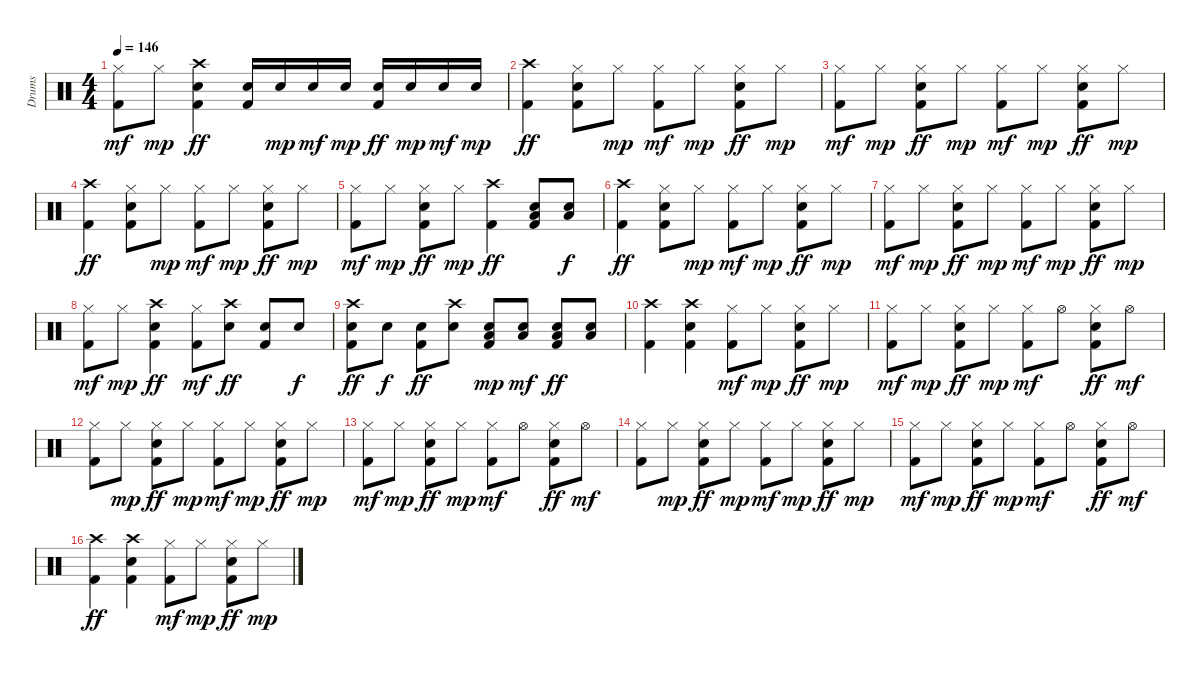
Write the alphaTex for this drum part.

\track ("Drums" "Drums") {instrument percussion}
\staff {score}
\articulation defaults
\ts (4 4)
\tempo 146
\clef neutral
\ks c
("Kick (hit) 2" "Hi-Hat (closed)").8{dy mf} "Hi-Hat (closed)".8{dy mp} ("Kick (hit) 2" "Snare (hit) 2" "Crash high (hit)").4{dy ff} ("Kick (hit) 2" "Snare (hit) 2").16 "Snare (hit) 2".16{dy mp} "Snare (hit) 2".16{dy mf} "Snare (hit) 2".16{dy mp} ("Kick (hit) 2" "Snare (hit) 2").16{dy ff} "Snare (hit) 2".16{dy mp} "Snare (hit) 2".16{dy mf} "Snare (hit) 2".16{dy mp} |
("Kick (hit) 2" "Crash high (hit)").4{dy ff} ("Kick (hit) 2" "Hi-Hat (closed)" "Snare (hit) 2").8 "Hi-Hat (closed)".8{dy mp} ("Kick (hit) 2" "Hi-Hat (closed)").8{dy mf} "Hi-Hat (closed)".8{dy mp} ("Kick (hit) 2" "Hi-Hat (closed)" "Snare (hit) 2").8{dy ff} "Hi-Hat (closed)".8{dy mp} |
("Kick (hit) 2" "Hi-Hat (closed)").8{dy mf} "Hi-Hat (closed)".8{dy mp} ("Kick (hit) 2" "Snare (hit) 2" "Hi-Hat (closed)").8{dy ff} "Hi-Hat (closed)".8{dy mp} ("Kick (hit) 2" "Hi-Hat (closed)").8{dy mf} "Hi-Hat (closed)".8{dy mp} ("Kick (hit) 2" "Snare (hit) 2" "Hi-Hat (closed)").8{dy ff} "Hi-Hat (closed)".8{dy mp} |
("Kick (hit) 2" "Crash high (hit)").4{dy ff} ("Kick (hit) 2" "Hi-Hat (closed)" "Snare (hit) 2").8 "Hi-Hat (closed)".8{dy mp} ("Kick (hit) 2" "Hi-Hat (closed)").8{dy mf} "Hi-Hat (closed)".8{dy mp} ("Kick (hit) 2" "Hi-Hat (closed)" "Snare (hit) 2").8{dy ff} "Hi-Hat (closed)".8{dy mp} |
("Kick (hit) 2" "Hi-Hat (closed)").8{dy mf} "Hi-Hat (closed)".8{dy mp} ("Kick (hit) 2" "Snare (hit) 2" "Hi-Hat (closed)").8{dy ff} "Hi-Hat (closed)".8{dy mp} ("Kick (hit) 2" "Crash high (hit)").4{dy ff} ("Kick (hit) 2" "Snare (hit) 2" "Low Floor Tom (hit)").8 ("Snare (hit) 2" "Low Floor Tom (hit)").8{dy f} |
("Kick (hit) 2" "Crash high (hit)").4{dy ff} ("Kick (hit) 2" "Hi-Hat (closed)" "Snare (hit) 2").8 "Hi-Hat (closed)".8{dy mp} ("Kick (hit) 2" "Hi-Hat (closed)").8{dy mf} "Hi-Hat (closed)".8{dy mp} ("Kick (hit) 2" "Hi-Hat (closed)" "Snare (hit) 2").8{dy ff} "Hi-Hat (closed)".8{dy mp} |
("Kick (hit) 2" "Hi-Hat (closed)").8{dy mf} "Hi-Hat (closed)".8{dy mp} ("Kick (hit) 2" "Snare (hit) 2" "Hi-Hat (closed)").8{dy ff} "Hi-Hat (closed)".8{dy mp} ("Kick (hit) 2" "Hi-Hat (closed)").8{dy mf} "Hi-Hat (closed)".8{dy mp} ("Kick (hit) 2" "Snare (hit) 2" "Hi-Hat (closed)").8{dy ff} "Hi-Hat (closed)".8{dy mp} |
("Kick (hit) 2" "Hi-Hat (closed)").8{dy mf} "Hi-Hat (closed)".8{dy mp} ("Kick (hit) 2" "Snare (hit) 2" "Crash high (hit)").4{dy ff} ("Kick (hit) 2" "Hi-Hat (closed)").8{dy mf} ("Crash high (hit)" "Snare (hit) 2").8{dy ff} ("Kick (hit) 2" "Snare (hit) 2").8 "Snare (hit) 2".8{dy f} |
("Kick (hit) 2" "Snare (hit) 2" "Crash high (hit)").8{dy ff} "Snare (hit) 2".8{dy f} ("Kick (hit) 2" "Snare (hit) 2").8{dy ff} ("Snare (hit) 2" "Crash high (hit)").8 ("Kick (hit) 2" "Snare (hit) 2" "Low Floor Tom (hit)").8{dy mp} ("Snare (hit) 2" "Low Floor Tom (hit)").8{dy mf} ("Kick (hit) 2" "Snare (hit) 2" "Low Floor Tom (hit)").8{dy ff} ("Snare (hit) 2" "Low Floor Tom (hit)").8 |
("Kick (hit) 2" "Crash high (hit)").4 ("Kick (hit) 2" "Snare (hit) 2" "Crash high (hit)").4 ("Kick (hit) 2" "Hi-Hat (closed)").8{dy mf} "Hi-Hat (closed)".8{dy mp} ("Kick (hit) 2" "Snare (hit) 2" "Hi-Hat (closed)").8{dy ff} "Hi-Hat (closed)".8{dy mp} |
("Kick (hit) 2" "Hi-Hat (closed)").8{dy mf} "Hi-Hat (closed)".8{dy mp} ("Kick (hit) 2" "Snare (hit) 2" "Hi-Hat (closed)").8{dy ff} "Hi-Hat (closed)".8{dy mp} ("Kick (hit) 2" "Hi-Hat (closed)").8{dy mf} "Hi-Hat (open)".8 ("Kick (hit) 2" "Snare (hit) 2" "Hi-Hat (closed)").8{dy ff} "Hi-Hat (open)".8{dy mf} |
("Kick (hit) 2" "Hi-Hat (closed)").8 "Hi-Hat (closed)".8{dy mp} ("Kick (hit) 2" "Snare (hit) 2" "Hi-Hat (closed)").8{dy ff} "Hi-Hat (closed)".8{dy mp} ("Kick (hit) 2" "Hi-Hat (closed)").8{dy mf} "Hi-Hat (closed)".8{dy mp} ("Kick (hit) 2" "Snare (hit) 2" "Hi-Hat (closed)").8{dy ff} "Hi-Hat (closed)".8{dy mp} |
("Kick (hit) 2" "Hi-Hat (closed)").8{dy mf} "Hi-Hat (closed)".8{dy mp} ("Kick (hit) 2" "Snare (hit) 2" "Hi-Hat (closed)").8{dy ff} "Hi-Hat (closed)".8{dy mp} ("Kick (hit) 2" "Hi-Hat (closed)").8{dy mf} "Hi-Hat (open)".8 ("Kick (hit) 2" "Snare (hit) 2" "Hi-Hat (closed)").8{dy ff} "Hi-Hat (open)".8{dy mf} |
("Kick (hit) 2" "Hi-Hat (closed)").8 "Hi-Hat (closed)".8{dy mp} ("Kick (hit) 2" "Snare (hit) 2" "Hi-Hat (closed)").8{dy ff} "Hi-Hat (closed)".8{dy mp} ("Kick (hit) 2" "Hi-Hat (closed)").8{dy mf} "Hi-Hat (closed)".8{dy mp} ("Kick (hit) 2" "Snare (hit) 2" "Hi-Hat (closed)").8{dy ff} "Hi-Hat (closed)".8{dy mp} |
("Kick (hit) 2" "Hi-Hat (closed)").8{dy mf} "Hi-Hat (closed)".8{dy mp} ("Kick (hit) 2" "Snare (hit) 2" "Hi-Hat (closed)").8{dy ff} "Hi-Hat (closed)".8{dy mp} ("Kick (hit) 2" "Hi-Hat (closed)").8{dy mf} "Hi-Hat (open)".8 ("Kick (hit) 2" "Snare (hit) 2" "Hi-Hat (closed)").8{dy ff} "Hi-Hat (open)".8{dy mf} |
("Kick (hit) 2" "Crash high (hit)").4{dy ff} ("Kick (hit) 2" "Snare (hit) 2" "Crash high (hit)").4 ("Kick (hit) 2" "Hi-Hat (closed)").8{dy mf} "Hi-Hat (closed)".8{dy mp} ("Kick (hit) 2" "Snare (hit) 2" "Hi-Hat (closed)").8{dy ff} "Hi-Hat (closed)".8{dy mp}
